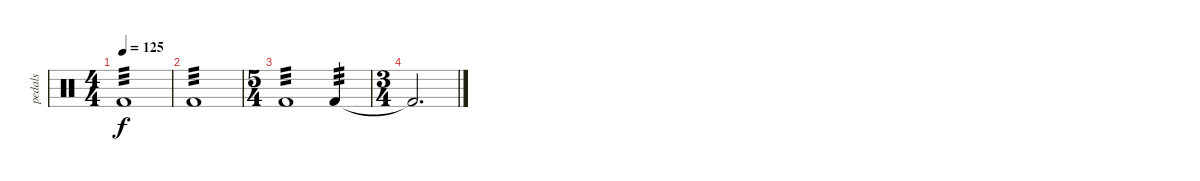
\track ("pedals" "pedals") {instrument percussion}
\staff {score}
\articulation defaults
\ts (4 4)
\tempo 125
\clef neutral
\ks c "Kick (hit) 2".1{tp 3 dy f}
|
"Kick (hit) 2".1{tp 3} |
\ts (5 4)
"Kick (hit) 2".1{tp 3} "Kick (hit) 2".4{tp 3} |
\ts (3 4)
"Kick (hit) 2"{t}.2{d}
